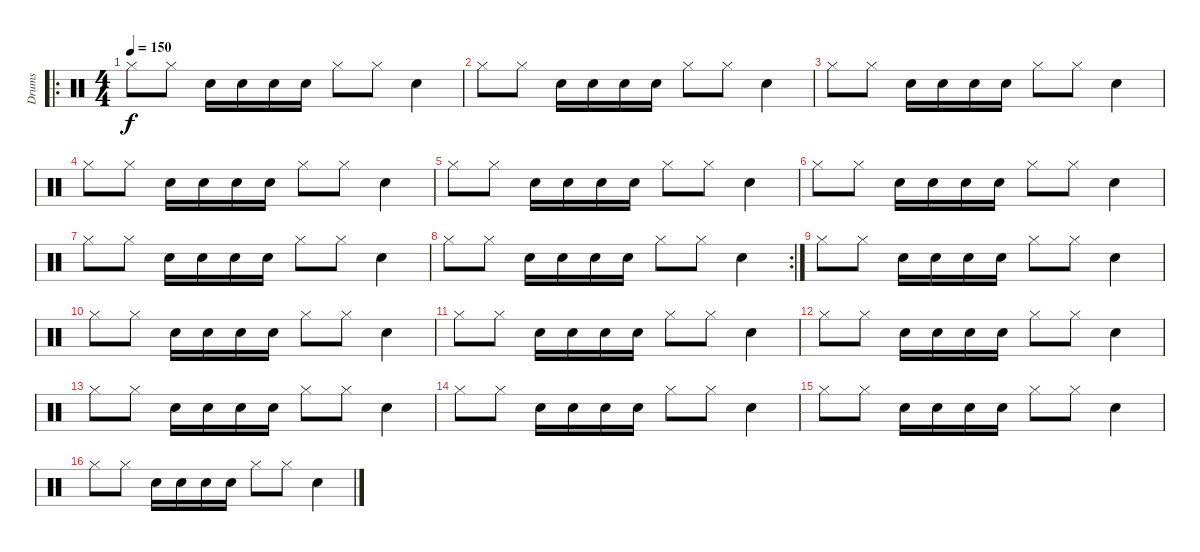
\track ("Drums" "Drums") {instrument percussion}
\staff {score}
\articulation defaults
\ro
\ts (4 4)
\tempo 150
\clef neutral
\ks c "Hi-Hat (closed)".8{dy f} "Hi-Hat (closed)".8 "Snare (hit) 2".16 "Snare (hit) 2".16 "Snare (hit) 2".16 "Snare (hit) 2".16 "Hi-Hat (closed)".8 "Hi-Hat (closed)".8 "Snare (hit) 2".4
|
"Hi-Hat (closed)".8 "Hi-Hat (closed)".8 "Snare (hit) 2".16 "Snare (hit) 2".16 "Snare (hit) 2".16 "Snare (hit) 2".16 "Hi-Hat (closed)".8 "Hi-Hat (closed)".8 "Snare (hit) 2".4 |
"Hi-Hat (closed)".8 "Hi-Hat (closed)".8 "Snare (hit) 2".16 "Snare (hit) 2".16 "Snare (hit) 2".16 "Snare (hit) 2".16 "Hi-Hat (closed)".8 "Hi-Hat (closed)".8 "Snare (hit) 2".4 |
"Hi-Hat (closed)".8 "Hi-Hat (closed)".8 "Snare (hit) 2".16 "Snare (hit) 2".16 "Snare (hit) 2".16 "Snare (hit) 2".16 "Hi-Hat (closed)".8 "Hi-Hat (closed)".8 "Snare (hit) 2".4 |
"Hi-Hat (closed)".8 "Hi-Hat (closed)".8 "Snare (hit) 2".16 "Snare (hit) 2".16 "Snare (hit) 2".16 "Snare (hit) 2".16 "Hi-Hat (closed)".8 "Hi-Hat (closed)".8 "Snare (hit) 2".4 |
"Hi-Hat (closed)".8 "Hi-Hat (closed)".8 "Snare (hit) 2".16 "Snare (hit) 2".16 "Snare (hit) 2".16 "Snare (hit) 2".16 "Hi-Hat (closed)".8 "Hi-Hat (closed)".8 "Snare (hit) 2".4 |
"Hi-Hat (closed)".8 "Hi-Hat (closed)".8 "Snare (hit) 2".16 "Snare (hit) 2".16 "Snare (hit) 2".16 "Snare (hit) 2".16 "Hi-Hat (closed)".8 "Hi-Hat (closed)".8 "Snare (hit) 2".4 |
\rc 2 "Hi-Hat (closed)".8 "Hi-Hat (closed)".8 "Snare (hit) 2".16 "Snare (hit) 2".16 "Snare (hit) 2".16 "Snare (hit) 2".16 "Hi-Hat (closed)".8 "Hi-Hat (closed)".8 "Snare (hit) 2".4
|
"Hi-Hat (closed)".8 "Hi-Hat (closed)".8 "Snare (hit) 2".16 "Snare (hit) 2".16 "Snare (hit) 2".16 "Snare (hit) 2".16 "Hi-Hat (closed)".8 "Hi-Hat (closed)".8 "Snare (hit) 2".4 |
"Hi-Hat (closed)".8 "Hi-Hat (closed)".8 "Snare (hit) 2".16 "Snare (hit) 2".16 "Snare (hit) 2".16 "Snare (hit) 2".16 "Hi-Hat (closed)".8 "Hi-Hat (closed)".8 "Snare (hit) 2".4 |
"Hi-Hat (closed)".8 "Hi-Hat (closed)".8 "Snare (hit) 2".16 "Snare (hit) 2".16 "Snare (hit) 2".16 "Snare (hit) 2".16 "Hi-Hat (closed)".8 "Hi-Hat (closed)".8 "Snare (hit) 2".4 |
"Hi-Hat (closed)".8 "Hi-Hat (closed)".8 "Snare (hit) 2".16 "Snare (hit) 2".16 "Snare (hit) 2".16 "Snare (hit) 2".16 "Hi-Hat (closed)".8 "Hi-Hat (closed)".8 "Snare (hit) 2".4 |
"Hi-Hat (closed)".8 "Hi-Hat (closed)".8 "Snare (hit) 2".16 "Snare (hit) 2".16 "Snare (hit) 2".16 "Snare (hit) 2".16 "Hi-Hat (closed)".8 "Hi-Hat (closed)".8 "Snare (hit) 2".4 |
"Hi-Hat (closed)".8 "Hi-Hat (closed)".8 "Snare (hit) 2".16 "Snare (hit) 2".16 "Snare (hit) 2".16 "Snare (hit) 2".16 "Hi-Hat (closed)".8 "Hi-Hat (closed)".8 "Snare (hit) 2".4 |
"Hi-Hat (closed)".8 "Hi-Hat (closed)".8 "Snare (hit) 2".16 "Snare (hit) 2".16 "Snare (hit) 2".16 "Snare (hit) 2".16 "Hi-Hat (closed)".8 "Hi-Hat (closed)".8 "Snare (hit) 2".4 |
"Hi-Hat (closed)".8 "Hi-Hat (closed)".8 "Snare (hit) 2".16 "Snare (hit) 2".16 "Snare (hit) 2".16 "Snare (hit) 2".16 "Hi-Hat (closed)".8 "Hi-Hat (closed)".8 "Snare (hit) 2".4
